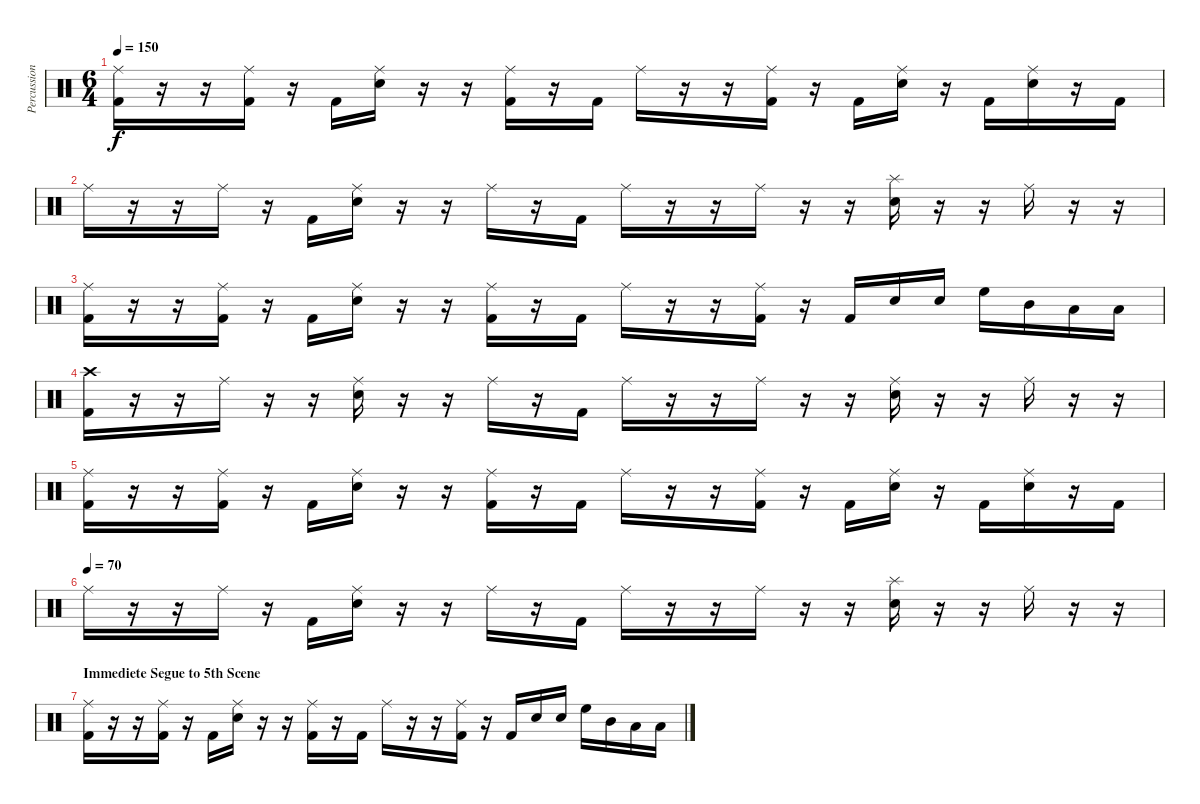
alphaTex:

\track ("Percussion" "Percussion") {instrument percussion}
\staff {score}
\articulation defaults
\ts (6 4)
\tempo 150
\clef neutral
\ks c
("Ride (middle)" "Kick (hit) 2").16{dy f} r.16 r.16 ("Ride (middle)" "Kick (hit) 2").16 r.16 "Kick (hit) 2".16 ("Ride (middle)" "Electric Snare (hit)").16 r.16 r.16 ("Ride (middle)" "Kick (hit) 2").16 r.16 "Kick (hit) 2".16 "Ride (middle)".16 r.16 r.16 ("Ride (middle)" "Kick (hit) 2").16 r.16 "Kick (hit) 2".16 ("Ride (middle)" "Electric Snare (hit)").16 r.16 "Kick (hit) 2".16 ("Ride (middle)" "Electric Snare (hit)").16 r.16 "Kick (hit) 2".16 |
"Ride (middle)".16 r.16 r.16 "Ride (middle)".16 r.16 "Kick (hit) 2".16 ("Ride (middle)" "Electric Snare (hit)").16 r.16 r.16 "Ride (middle)".16 r.16 "Kick (hit) 2".16 "Ride (middle)".16 r.16 r.16 "Ride (middle)".16 r.16 r.16 ("Splash (hit)" "Electric Snare (hit)").16 r.16 r.16 "Ride (middle)".16 r.16 r.16 |
("Ride (middle)" "Kick (hit) 2").16 r.16 r.16 ("Ride (middle)" "Kick (hit) 2").16 r.16 "Kick (hit) 2".16 ("Ride (middle)" "Electric Snare (hit)").16 r.16 r.16 ("Ride (middle)" "Kick (hit) 2").16 r.16 "Kick (hit) 2".16 "Ride (middle)".16 r.16 r.16 ("Ride (middle)" "Kick (hit) 2").16 r.16 "Kick (hit) 2".16 "Electric Snare (hit)".16 "Electric Snare (hit)".16 "High Floor Tom (hit)".16 "Mid Tom (hit)".16 "Low Tom (hit)".16 "Low Floor Tom (hit)".16 |
("Crash high (hit)" "Kick (hit) 2").16 r.16 r.16 "Ride (middle)".16 r.16 r.16 ("Ride (middle)" "Electric Snare (hit)").16 r.16 r.16 "Ride (middle)".16 r.16 "Kick (hit) 2".16 "Ride (middle)".16 r.16 r.16 "Ride (middle)".16 r.16 r.16 ("Ride (middle)" "Electric Snare (hit)").16 r.16 r.16 "Ride (middle)".16 r.16 r.16 |
("Ride (middle)" "Kick (hit) 2").16 r.16 r.16 ("Ride (middle)" "Kick (hit) 2").16 r.16 "Kick (hit) 2".16 ("Ride (middle)" "Electric Snare (hit)").16 r.16 r.16 ("Ride (middle)" "Kick (hit) 2").16 r.16 "Kick (hit) 2".16 "Ride (middle)".16 r.16 r.16 ("Ride (middle)" "Kick (hit) 2").16 r.16 "Kick (hit) 2".16 ("Ride (middle)" "Electric Snare (hit)").16 r.16 "Kick (hit) 2".16 ("Ride (middle)" "Electric Snare (hit)").16 r.16 "Kick (hit) 2".16 |
\tempo (70)
"Ride (middle)".16 r.16 r.16 "Ride (middle)".16 r.16 "Kick (hit) 2".16 ("Ride (middle)" "Electric Snare (hit)").16 r.16 r.16 "Ride (middle)".16 r.16 "Kick (hit) 2".16 "Ride (middle)".16 r.16 r.16 "Ride (middle)".16 r.16 r.16 ("Splash (hit)" "Electric Snare (hit)").16 r.16 r.16 "Ride (middle)".16 r.16 r.16 |
\section ("" "Immediete Segue to 5th Scene")
("Ride (middle)" "Kick (hit) 2").16 r.16 r.16 ("Ride (middle)" "Kick (hit) 2").16 r.16 "Kick (hit) 2".16 ("Ride (middle)" "Electric Snare (hit)").16 r.16 r.16 ("Ride (middle)" "Kick (hit) 2").16 r.16 "Kick (hit) 2".16 "Ride (middle)".16 r.16 r.16 ("Ride (middle)" "Kick (hit) 2").16 r.16 "Kick (hit) 2".16 "Electric Snare (hit)".16 "Electric Snare (hit)".16 "High Floor Tom (hit)".16 "Mid Tom (hit)".16 "Low Tom (hit)".16 "Low Floor Tom (hit)".16
